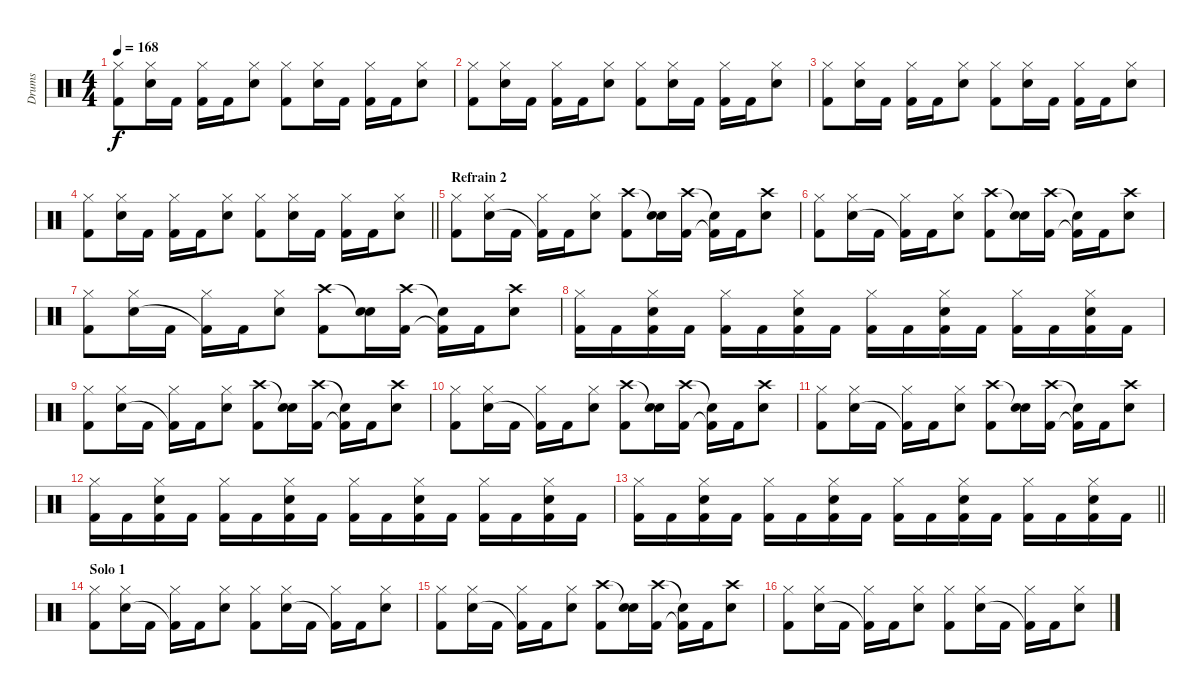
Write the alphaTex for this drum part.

\track ("Drums" "Drums") {instrument percussion}
\staff {score}
\articulation defaults
\ts (4 4)
\tempo 168
\clef neutral
\ks c
("Hi-Hat (closed)" "Kick (hit) 2").8{dy f} ("Hi-Hat (closed)" "Electric Snare (hit)").16 "Kick (hit) 2".16 ("Hi-Hat (closed)" "Kick (hit) 2").16 "Kick (hit) 2".16 ("Hi-Hat (closed)" "Electric Snare (hit)").8 ("Hi-Hat (closed)" "Kick (hit) 2").8 ("Hi-Hat (closed)" "Electric Snare (hit)").16 "Kick (hit) 2".16 ("Hi-Hat (closed)" "Kick (hit) 2").16 "Kick (hit) 2".16 ("Hi-Hat (closed)" "Electric Snare (hit)").8 |
("Hi-Hat (closed)" "Kick (hit) 2").8 ("Hi-Hat (closed)" "Electric Snare (hit)").16 "Kick (hit) 2".16 ("Hi-Hat (closed)" "Kick (hit) 2").16 "Kick (hit) 2".16 ("Hi-Hat (closed)" "Electric Snare (hit)").8 ("Hi-Hat (closed)" "Kick (hit) 2").8 ("Hi-Hat (closed)" "Electric Snare (hit)").16 "Kick (hit) 2".16 ("Hi-Hat (closed)" "Kick (hit) 2").16 "Kick (hit) 2".16 ("Hi-Hat (closed)" "Electric Snare (hit)").8 |
("Hi-Hat (closed)" "Kick (hit) 2").8 ("Hi-Hat (closed)" "Electric Snare (hit)").16 "Kick (hit) 2".16 ("Hi-Hat (closed)" "Kick (hit) 2").16 "Kick (hit) 2".16 ("Hi-Hat (closed)" "Electric Snare (hit)").8 ("Hi-Hat (closed)" "Kick (hit) 2").8 ("Hi-Hat (closed)" "Electric Snare (hit)").16 "Kick (hit) 2".16 ("Hi-Hat (closed)" "Kick (hit) 2").16 "Kick (hit) 2".16 ("Hi-Hat (closed)" "Electric Snare (hit)").8 |
\barLineRight lightlight
("Hi-Hat (closed)" "Kick (hit) 2").8 ("Hi-Hat (closed)" "Electric Snare (hit)").16 "Kick (hit) 2".16 ("Hi-Hat (closed)" "Kick (hit) 2").16 "Kick (hit) 2".16 ("Hi-Hat (closed)" "Electric Snare (hit)").8 ("Hi-Hat (closed)" "Kick (hit) 2").8 ("Hi-Hat (closed)" "Electric Snare (hit)").16 "Kick (hit) 2".16 ("Hi-Hat (closed)" "Kick (hit) 2").16 "Kick (hit) 2".16 ("Hi-Hat (closed)" "Electric Snare (hit)").8 |
\section ("" "Refrain 2")
("Hi-Hat (closed)" "Kick (hit) 2").8 ("Hi-Hat (closed)" "Electric Snare (hit)").16 "Kick (hit) 2".16 ("Hi-Hat (closed)" "Kick (hit) 2"{t}).16 "Kick (hit) 2".16 ("Hi-Hat (closed)" "Electric Snare (hit)").8 ("Crash high (hit)" "Kick (hit) 2").8 ("Snare (hit)"{t} "Electric Snare (hit)").16 ("Crash high (hit)" "Kick (hit) 2").16 ("Snare (hit)"{t} "Kick (hit) 2"{t}).16 "Kick (hit) 2".16 ("Crash high (hit)" "Electric Snare (hit)").8 |
("Hi-Hat (closed)" "Kick (hit) 2").8 ("Hi-Hat (closed)" "Electric Snare (hit)").16 "Kick (hit) 2".16 ("Hi-Hat (closed)" "Kick (hit) 2"{t}).16 "Kick (hit) 2".16 ("Hi-Hat (closed)" "Electric Snare (hit)").8 ("Crash high (hit)" "Kick (hit) 2").8 ("Snare (hit)"{t} "Electric Snare (hit)").16 ("Crash high (hit)" "Kick (hit) 2").16 ("Snare (hit)"{t} "Kick (hit) 2"{t}).16 "Kick (hit) 2".16 ("Crash high (hit)" "Electric Snare (hit)").8 |
("Hi-Hat (closed)" "Kick (hit) 2").8 ("Hi-Hat (closed)" "Electric Snare (hit)").16 "Kick (hit) 2".16 ("Hi-Hat (closed)" "Kick (hit) 2"{t}).16 "Kick (hit) 2".16 ("Hi-Hat (closed)" "Electric Snare (hit)").8 ("Crash high (hit)" "Kick (hit) 2").8 ("Snare (hit)"{t} "Electric Snare (hit)").16 ("Crash high (hit)" "Kick (hit) 2").16 ("Snare (hit)"{t} "Kick (hit) 2"{t}).16 "Kick (hit) 2".16 ("Crash high (hit)" "Electric Snare (hit)").8 |
("Hi-Hat (closed)" "Kick (hit) 2").16 "Kick (hit) 2".16 ("Hi-Hat (closed)" "Electric Snare (hit)" "Kick (hit) 2").16 "Kick (hit) 2".16 ("Hi-Hat (closed)" "Kick (hit) 2").16 "Kick (hit) 2".16 ("Hi-Hat (closed)" "Electric Snare (hit)" "Kick (hit) 2").16 "Kick (hit) 2".16 ("Hi-Hat (closed)" "Kick (hit) 2").16 "Kick (hit) 2".16 ("Hi-Hat (closed)" "Electric Snare (hit)" "Kick (hit) 2").16 "Kick (hit) 2".16 ("Hi-Hat (closed)" "Kick (hit) 2").16 "Kick (hit) 2".16 ("Hi-Hat (closed)" "Electric Snare (hit)" "Kick (hit) 2").16 "Kick (hit) 2".16 |
("Hi-Hat (closed)" "Kick (hit) 2").8 ("Hi-Hat (closed)" "Electric Snare (hit)").16 "Kick (hit) 2".16 ("Hi-Hat (closed)" "Kick (hit) 2"{t}).16 "Kick (hit) 2".16 ("Hi-Hat (closed)" "Electric Snare (hit)").8 ("Crash high (hit)" "Kick (hit) 2").8 ("Snare (hit)"{t} "Electric Snare (hit)").16 ("Crash high (hit)" "Kick (hit) 2").16 ("Snare (hit)"{t} "Kick (hit) 2"{t}).16 "Kick (hit) 2".16 ("Crash high (hit)" "Electric Snare (hit)").8 |
("Hi-Hat (closed)" "Kick (hit) 2").8 ("Hi-Hat (closed)" "Electric Snare (hit)").16 "Kick (hit) 2".16 ("Hi-Hat (closed)" "Kick (hit) 2"{t}).16 "Kick (hit) 2".16 ("Hi-Hat (closed)" "Electric Snare (hit)").8 ("Crash high (hit)" "Kick (hit) 2").8 ("Snare (hit)"{t} "Electric Snare (hit)").16 ("Crash high (hit)" "Kick (hit) 2").16 ("Snare (hit)"{t} "Kick (hit) 2"{t}).16 "Kick (hit) 2".16 ("Crash high (hit)" "Electric Snare (hit)").8 |
("Hi-Hat (closed)" "Kick (hit) 2").8 ("Hi-Hat (closed)" "Electric Snare (hit)").16 "Kick (hit) 2".16 ("Hi-Hat (closed)" "Kick (hit) 2"{t}).16 "Kick (hit) 2".16 ("Hi-Hat (closed)" "Electric Snare (hit)").8 ("Crash high (hit)" "Kick (hit) 2").8 ("Snare (hit)"{t} "Electric Snare (hit)").16 ("Crash high (hit)" "Kick (hit) 2").16 ("Snare (hit)"{t} "Kick (hit) 2"{t}).16 "Kick (hit) 2".16 ("Crash high (hit)" "Electric Snare (hit)").8 |
("Hi-Hat (closed)" "Kick (hit) 2").16 "Kick (hit) 2".16 ("Hi-Hat (closed)" "Electric Snare (hit)" "Kick (hit) 2").16 "Kick (hit) 2".16 ("Hi-Hat (closed)" "Kick (hit) 2").16 "Kick (hit) 2".16 ("Hi-Hat (closed)" "Electric Snare (hit)" "Kick (hit) 2").16 "Kick (hit) 2".16 ("Hi-Hat (closed)" "Kick (hit) 2").16 "Kick (hit) 2".16 ("Hi-Hat (closed)" "Electric Snare (hit)" "Kick (hit) 2").16 "Kick (hit) 2".16 ("Hi-Hat (closed)" "Kick (hit) 2").16 "Kick (hit) 2".16 ("Hi-Hat (closed)" "Electric Snare (hit)" "Kick (hit) 2").16 "Kick (hit) 2".16 |
\barLineRight lightlight
("Hi-Hat (closed)" "Kick (hit) 2").16 "Kick (hit) 2".16 ("Hi-Hat (closed)" "Electric Snare (hit)" "Kick (hit) 2").16 "Kick (hit) 2".16 ("Hi-Hat (closed)" "Kick (hit) 2").16 "Kick (hit) 2".16 ("Hi-Hat (closed)" "Electric Snare (hit)" "Kick (hit) 2").16 "Kick (hit) 2".16 ("Hi-Hat (closed)" "Kick (hit) 2").16 "Kick (hit) 2".16 ("Hi-Hat (closed)" "Electric Snare (hit)" "Kick (hit) 2").16 "Kick (hit) 2".16 ("Hi-Hat (closed)" "Kick (hit) 2").16 "Kick (hit) 2".16 ("Hi-Hat (closed)" "Electric Snare (hit)" "Kick (hit) 2").16 "Kick (hit) 2".16 |
\section ("" "Solo 1")
("Hi-Hat (closed)" "Kick (hit) 2").8 ("Hi-Hat (closed)" "Electric Snare (hit)").16 "Kick (hit) 2".16 ("Hi-Hat (closed)" "Kick (hit) 2"{t}).16 "Kick (hit) 2".16 ("Hi-Hat (closed)" "Electric Snare (hit)").8 ("Hi-Hat (closed)" "Kick (hit) 2").8 ("Hi-Hat (closed)" "Electric Snare (hit)").16 "Kick (hit) 2".16 ("Hi-Hat (closed)" "Kick (hit) 2"{t}).16 "Kick (hit) 2".16 ("Hi-Hat (closed)" "Electric Snare (hit)").8 |
("Hi-Hat (closed)" "Kick (hit) 2").8 ("Hi-Hat (closed)" "Electric Snare (hit)").16 "Kick (hit) 2".16 ("Hi-Hat (closed)" "Kick (hit) 2"{t}).16 "Kick (hit) 2".16 ("Hi-Hat (closed)" "Electric Snare (hit)").8 ("Crash high (hit)" "Kick (hit) 2").8 ("Snare (hit)"{t} "Electric Snare (hit)").16 ("Crash high (hit)" "Kick (hit) 2").16 ("Snare (hit)"{t} "Kick (hit) 2"{t}).16 "Kick (hit) 2".16 ("Crash high (hit)" "Electric Snare (hit)").8 |
("Hi-Hat (closed)" "Kick (hit) 2").8 ("Hi-Hat (closed)" "Electric Snare (hit)").16 "Kick (hit) 2".16 ("Hi-Hat (closed)" "Kick (hit) 2"{t}).16 "Kick (hit) 2".16 ("Hi-Hat (closed)" "Electric Snare (hit)").8 ("Hi-Hat (closed)" "Kick (hit) 2").8 ("Hi-Hat (closed)" "Electric Snare (hit)").16 "Kick (hit) 2".16 ("Hi-Hat (closed)" "Kick (hit) 2"{t}).16 "Kick (hit) 2".16 ("Hi-Hat (closed)" "Electric Snare (hit)").8
